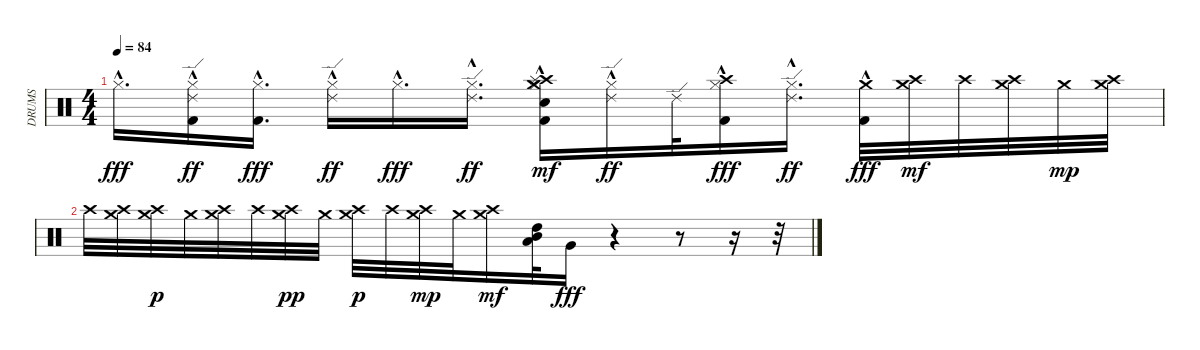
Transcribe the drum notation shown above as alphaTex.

\track ("DRUMS" "DRUMS") {instrument percussion}
\staff {score}
\articulation defaults
\ts (4 4)
\tempo 84
\clef neutral
\ks c "Hi-Hat (closed)"{hac}.16{d dy fff}
("Hi-Hat (closed)"{hac} "Kick (hit) 2"{hac} "Ride (edge) 2").16{dy ff} ("Hi-Hat (closed)"{hac} "Kick (hit) 2"{hac}).16{d dy fff} ("Hi-Hat (closed)"{hac} "Ride (edge) 2").16{dy ff} "Hi-Hat (closed)"{hac}.16{d dy fff} ("Ride (edge) 2" "Hi-Hat (closed)"{hac}).16{d dy ff} ("Snare (hit) 2"{hac} "Crash medium (hit)"{hac} "Hi-Hat (closed)"{hac} "Crash high (hit)"{hac} "Kick (hit) 2"{hac} "Splash (hit)"{hac}).16{dy mf} ("Hi-Hat (closed)"{hac} "Ride (edge) 2").16{dy ff} "Ride (edge) 2".32 ("Hi-Hat (closed)"{hac} "Kick (hit) 2"{hac} "Crash high (hit)"{hac}).16{dy fff} ("Ride (edge) 2" "Hi-Hat (closed)"{hac}).16{d dy ff} ("Crash medium (hit)" "Kick (hit) 2"{hac}).32{dy fff} ("Crash high (hit)" "Crash medium (hit)").32{dy mf} "Crash high (hit)".32 ("Crash medium (hit)" "Crash high (hit)").32 "Crash medium (hit)".32{dy mp} ("Crash high (hit)" "Crash medium (hit)").32 |
"Crash high (hit)".32 ("Crash medium (hit)" "Crash high (hit)").32 ("Crash medium (hit)" "Crash high (hit)").32{dy p} "Crash medium (hit)".32 ("Crash high (hit)" "Crash medium (hit)").32 "Crash high (hit)".32 ("Crash medium (hit)" "Crash high (hit)").32{dy pp} "Crash medium (hit)".32 ("Crash high (hit)" "Crash medium (hit)").32{dy p} "Crash high (hit)".32 ("Crash medium (hit)" "Crash high (hit)").32{dy mp} "Crash medium (hit)".32 ("Crash high (hit)" "Crash medium (hit)").16{dy mf} ("Mid Tom (hit)" "High Tom (hit)" "Low Tom (hit)").32 "Very Low Tom (hit)".16{dy fff} r.4 r.8 r.16 r.32
